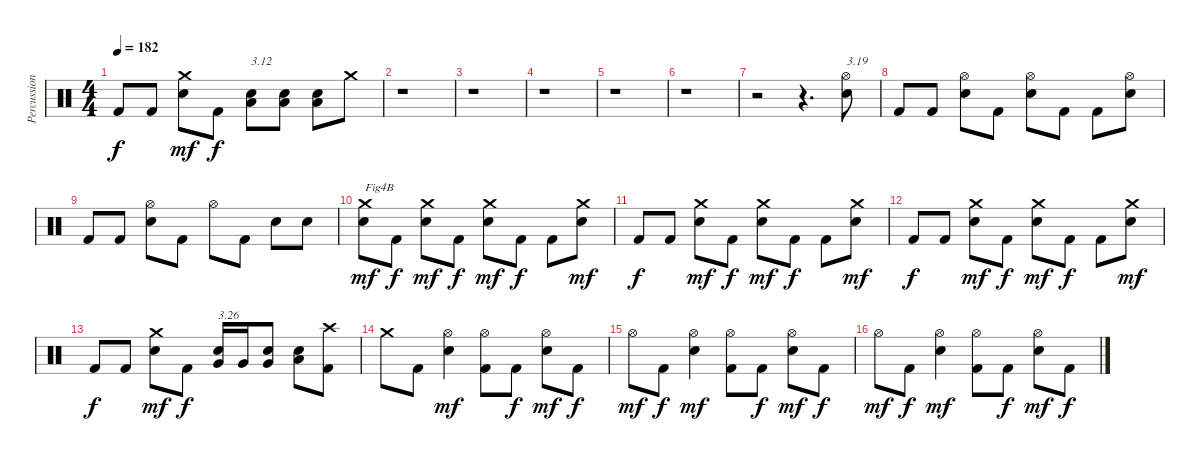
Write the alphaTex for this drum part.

\track ("Percussions" "Percussion") {instrument percussion}
\staff {score}
\articulation defaults
\ts (4 4)
\tempo 182
\clef neutral
\ks c "Kick (hit) 2".8{dy f} "Kick (hit) 2".8
("Electric Snare (hit)" "Crash medium (hit)").8{dy mf} "Kick (hit) 2".8{dy f} ("Low Floor Tom (hit)" "Electric Snare (hit)").8{txt "3.12"} ("Low Floor Tom (hit)" "Electric Snare (hit)").8 ("Low Floor Tom (hit)" "Electric Snare (hit)").8 "Crash medium (hit)".8 |
r.1 |
r.1 |
r.1 |
r.1 |
r.1 |
r.2 r.4{d} ("Electric Snare (hit)" "Hi-Hat (open)").8{txt "3.19"} |
"Kick (hit) 2".8 "Kick (hit) 2".8 ("Electric Snare (hit)" "Hi-Hat (open)").8 "Kick (hit) 2".8 ("Electric Snare (hit)" "Hi-Hat (open)").8 "Kick (hit) 2".8 "Kick (hit) 2".8 ("Electric Snare (hit)" "Hi-Hat (open)").8 |
"Kick (hit) 2".8 "Kick (hit) 2".8 ("Electric Snare (hit)" "Hi-Hat (open)").8 "Kick (hit) 2".8 "Hi-Hat (open)".8 "Kick (hit) 2".8 "Electric Snare (hit)".8 "Electric Snare (hit)".8 |
("Electric Snare (hit)" "Crash medium (hit)").8{txt "Fig4B" dy mf} "Kick (hit) 2".8{dy f} ("Electric Snare (hit)" "Crash medium (hit)").8{dy mf} "Kick (hit) 2".8{dy f} ("Electric Snare (hit)" "Crash medium (hit)").8{dy mf} "Kick (hit) 2".8{dy f} "Kick (hit) 2".8 ("Electric Snare (hit)" "Crash medium (hit)").8{dy mf} |
"Kick (hit) 2".8{dy f} "Kick (hit) 2".8 ("Electric Snare (hit)" "Crash medium (hit)").8{dy mf} "Kick (hit) 2".8{dy f} ("Electric Snare (hit)" "Crash medium (hit)").8{dy mf} "Kick (hit) 2".8{dy f} "Kick (hit) 2".8 ("Electric Snare (hit)" "Crash medium (hit)").8{dy mf} |
"Kick (hit) 2".8{dy f} "Kick (hit) 2".8 ("Electric Snare (hit)" "Crash medium (hit)").8{dy mf} "Kick (hit) 2".8{dy f} ("Electric Snare (hit)" "Crash medium (hit)").8{dy mf} "Kick (hit) 2".8{dy f} "Kick (hit) 2".8 ("Electric Snare (hit)" "Crash medium (hit)").8{dy mf} |
"Kick (hit) 2".8{dy f} "Kick (hit) 2".8 ("Electric Snare (hit)" "Crash medium (hit)").8{dy mf} "Kick (hit) 2".8{dy f} ("Very Low Tom (hit)" "Electric Snare (hit)").16{txt "3.26"} "Very Low Tom (hit)".16 ("Very Low Tom (hit)" "Electric Snare (hit)").8 ("Low Floor Tom (hit)" "Electric Snare (hit)").8 ("Kick (hit) 2" "Crash high (hit)").8 |
"Crash medium (hit)".8 "Kick (hit) 2".8 ("Electric Snare (hit)" "Hi-Hat (open)").4{dy mf} ("Kick (hit) 2" "Hi-Hat (open)").8 "Kick (hit) 2".8{dy f} ("Electric Snare (hit)" "Hi-Hat (open)").8{dy mf} "Kick (hit) 2".8{dy f} |
"Hi-Hat (open)".8{dy mf} "Kick (hit) 2".8{dy f} ("Electric Snare (hit)" "Hi-Hat (open)").4{dy mf} ("Kick (hit) 2" "Hi-Hat (open)").8 "Kick (hit) 2".8{dy f} ("Electric Snare (hit)" "Hi-Hat (open)").8{dy mf} "Kick (hit) 2".8{dy f} |
"Hi-Hat (open)".8{dy mf} "Kick (hit) 2".8{dy f} ("Electric Snare (hit)" "Hi-Hat (open)").4{dy mf} ("Kick (hit) 2" "Hi-Hat (open)").8 "Kick (hit) 2".8{dy f} ("Electric Snare (hit)" "Hi-Hat (open)").8{dy mf} "Kick (hit) 2".8{dy f}
